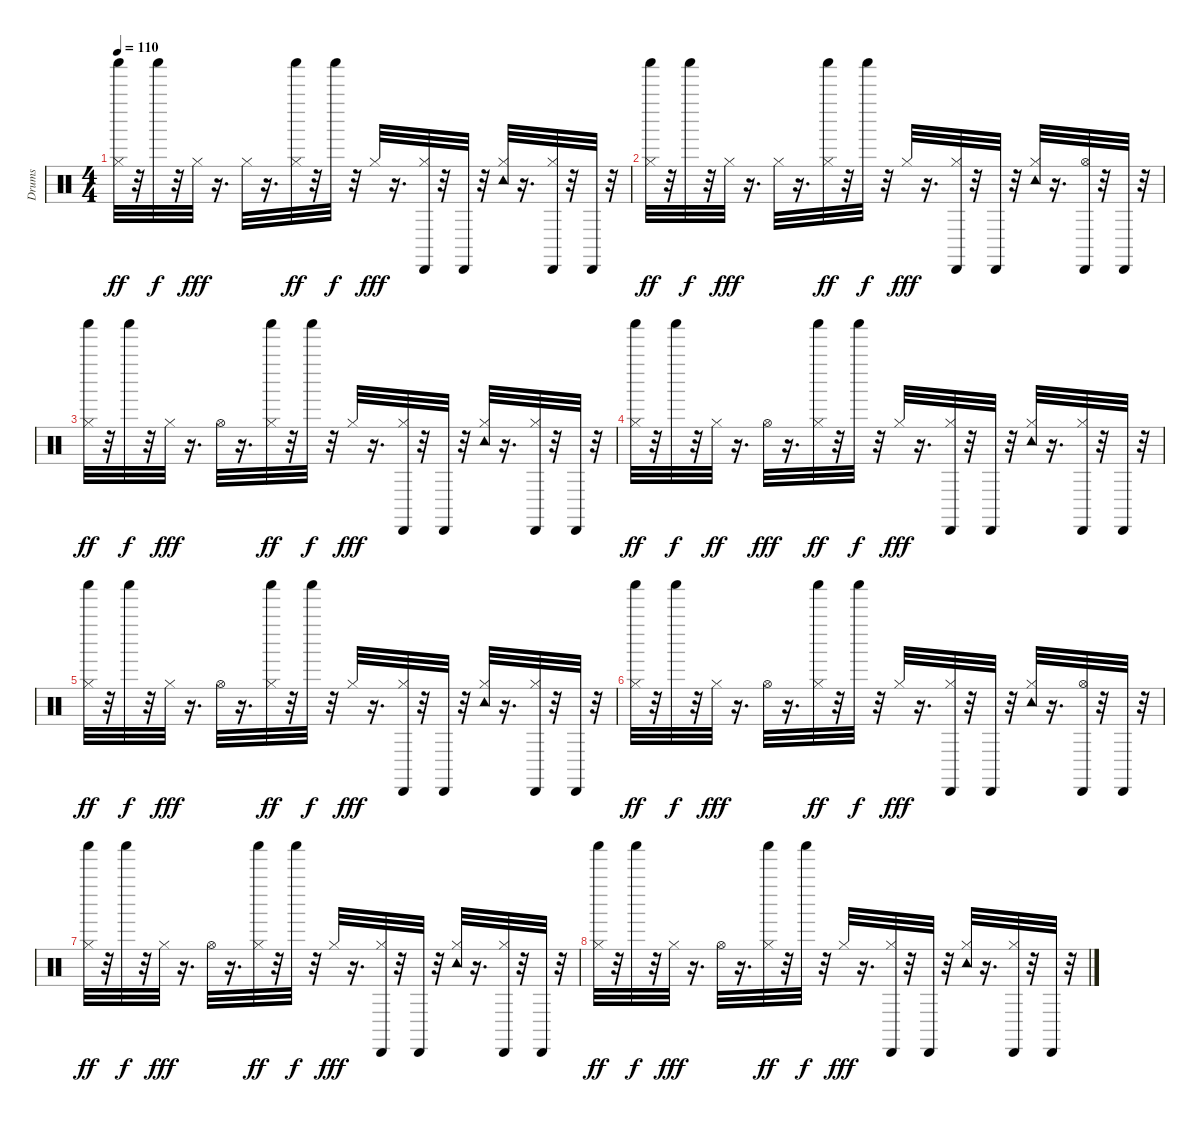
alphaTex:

\track ("Drums               " "Drums     ") {instrument percussion}
\staff {score}
\articulation defaults
\ts (4 4)
\tempo 110
\clef neutral
\ks c
("Hi-Hat (closed)" "Shaker (hit)").32{dy ff} r.32 "Shaker (hit)".32{dy f} r.32 "Hi-Hat (closed)".32{dy fff} r.16{d} "Hi-Hat (closed)".32 r.16{d} ("Hi-Hat (closed)" "Shaker (hit)").32{dy ff} r.32 "Shaker (hit)".32{dy f} r.32 "Hi-Hat (closed)".32{dy fff} r.16{d} ("Hi-Hat (closed)" "Cabasa (hit)").32 r.32 "Cabasa (hit)".32 r.32 ("Hi-Hat (closed)" "Tambourine (hit)").32 r.16{d} ("Hi-Hat (closed)" "Cabasa (hit)").32 r.32 "Cabasa (hit)".32 r.32 |
("Hi-Hat (closed)" "Shaker (hit)").32{dy ff} r.32 "Shaker (hit)".32{dy f} r.32 "Hi-Hat (closed)".32{dy fff} r.16{d} "Hi-Hat (closed)".32 r.16{d} ("Hi-Hat (closed)" "Shaker (hit)").32{dy ff} r.32 "Shaker (hit)".32{dy f} r.32 "Hi-Hat (closed)".32{dy fff} r.16{d} ("Hi-Hat (closed)" "Cabasa (hit)").32 r.32 "Cabasa (hit)".32 r.32 ("Hi-Hat (closed)" "Tambourine (hit)").32 r.16{d} ("Hi-Hat (open)" "Cabasa (hit)").32 r.32 "Cabasa (hit)".32 r.32 |
("Hi-Hat (closed)" "Shaker (hit)").32{dy ff} r.32 "Shaker (hit)".32{dy f} r.32 "Hi-Hat (closed)".32{dy fff} r.16{d} "Hi-Hat (open)".32 r.16{d} ("Hi-Hat (closed)" "Shaker (hit)").32{dy ff} r.32 "Shaker (hit)".32{dy f} r.32 "Hi-Hat (closed)".32{dy fff} r.16{d} ("Hi-Hat (closed)" "Cabasa (hit)").32 r.32 "Cabasa (hit)".32 r.32 ("Hi-Hat (closed)" "Tambourine (hit)").32 r.16{d} ("Hi-Hat (closed)" "Cabasa (hit)").32 r.32 "Cabasa (hit)".32 r.32 |
("Hi-Hat (closed)" "Shaker (hit)").32{dy ff} r.32 "Shaker (hit)".32{dy f} r.32 "Hi-Hat (closed)".32{dy ff} r.16{d} "Hi-Hat (open)".32{dy fff} r.16{d} ("Hi-Hat (closed)" "Shaker (hit)").32{dy ff} r.32 "Shaker (hit)".32{dy f} r.32 "Hi-Hat (closed)".32{dy fff} r.16{d} ("Hi-Hat (closed)" "Cabasa (hit)").32 r.32 "Cabasa (hit)".32 r.32 ("Hi-Hat (closed)" "Tambourine (hit)").32 r.16{d} ("Hi-Hat (closed)" "Cabasa (hit)").32 r.32 "Cabasa (hit)".32 r.32 |
("Hi-Hat (closed)" "Shaker (hit)").32{dy ff} r.32 "Shaker (hit)".32{dy f} r.32 "Hi-Hat (closed)".32{dy fff} r.16{d} "Hi-Hat (open)".32 r.16{d} ("Hi-Hat (closed)" "Shaker (hit)").32{dy ff} r.32 "Shaker (hit)".32{dy f} r.32 "Hi-Hat (closed)".32{dy fff} r.16{d} ("Hi-Hat (closed)" "Cabasa (hit)").32 r.32 "Cabasa (hit)".32 r.32 ("Hi-Hat (closed)" "Tambourine (hit)").32 r.16{d} ("Hi-Hat (closed)" "Cabasa (hit)").32 r.32 "Cabasa (hit)".32 r.32 |
("Hi-Hat (closed)" "Shaker (hit)").32{dy ff} r.32 "Shaker (hit)".32{dy f} r.32 "Hi-Hat (closed)".32{dy fff} r.16{d} "Hi-Hat (open)".32 r.16{d} ("Hi-Hat (closed)" "Shaker (hit)").32{dy ff} r.32 "Shaker (hit)".32{dy f} r.32 "Hi-Hat (closed)".32{dy fff} r.16{d} ("Hi-Hat (closed)" "Cabasa (hit)").32 r.32 "Cabasa (hit)".32 r.32 ("Hi-Hat (closed)" "Tambourine (hit)").32 r.16{d} ("Hi-Hat (open)" "Cabasa (hit)").32 r.32 "Cabasa (hit)".32 r.32 |
("Hi-Hat (closed)" "Shaker (hit)").32{dy ff} r.32 "Shaker (hit)".32{dy f} r.32 "Hi-Hat (closed)".32{dy fff} r.16{d} "Hi-Hat (open)".32 r.16{d} ("Hi-Hat (closed)" "Shaker (hit)").32{dy ff} r.32 "Shaker (hit)".32{dy f} r.32 "Hi-Hat (closed)".32{dy fff} r.16{d} ("Hi-Hat (closed)" "Cabasa (hit)").32 r.32 "Cabasa (hit)".32 r.32 ("Hi-Hat (closed)" "Tambourine (hit)").32 r.16{d} ("Hi-Hat (closed)" "Cabasa (hit)").32 r.32 "Cabasa (hit)".32 r.32 |
("Hi-Hat (closed)" "Shaker (hit)").32{dy ff} r.32 "Shaker (hit)".32{dy f} r.32 "Hi-Hat (closed)".32{dy fff} r.16{d} "Hi-Hat (open)".32 r.16{d} ("Hi-Hat (closed)" "Shaker (hit)").32{dy ff} r.32 "Shaker (hit)".32{dy f} r.32 "Hi-Hat (closed)".32{dy fff} r.16{d} ("Hi-Hat (closed)" "Cabasa (hit)").32 r.32 "Cabasa (hit)".32 r.32 ("Hi-Hat (closed)" "Tambourine (hit)").32 r.16{d} ("Hi-Hat (closed)" "Cabasa (hit)").32 r.32 "Cabasa (hit)".32 r.32
